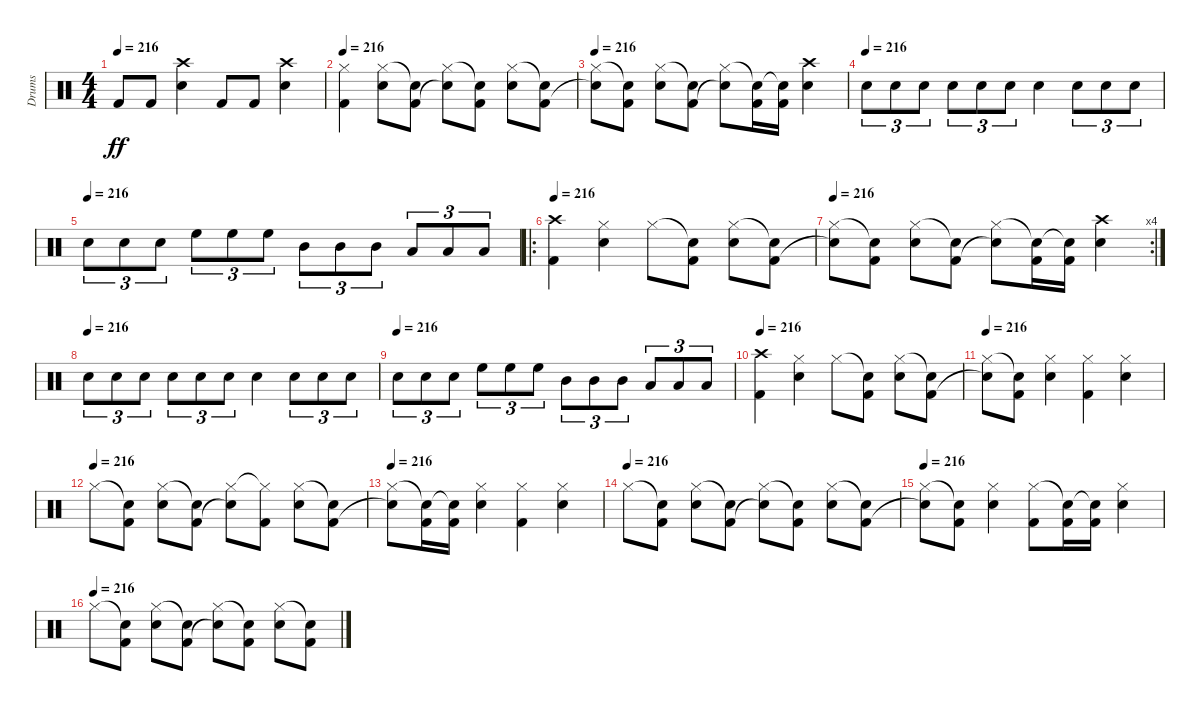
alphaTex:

\track ("Drums" "Drums") {instrument percussion}
\staff {score}
\articulation defaults
\ts (4 4)
\tempo 216
\clef neutral
\ks c "Kick (hit) 2".8{dy ff} "Kick (hit) 2".8
("Crash high (hit)" "Snare (hit) 2").4 "Kick (hit) 2".8 "Kick (hit) 2".8 ("Crash high (hit)" "Snare (hit) 2").4 |
\tempo 216
("Hi-Hat (closed)" "Kick (hit) 2").4 ("Hi-Hat (closed)" "Snare (hit) 2").8 ("Snare (hit)"{t} "Kick (hit) 2").8 ("Hi-Hat (closed)" "Snare (hit)"{t}).8 ("Snare (hit)"{t} "Kick (hit) 2").8 ("Hi-Hat (closed)" "Snare (hit) 2").8 ("Snare (hit)"{t} "Kick (hit) 2").8 |
\tempo 216
("Hi-Hat (closed)" "Snare (hit)"{t}).8 ("Snare (hit)"{t} "Kick (hit) 2").8 ("Hi-Hat (closed)" "Snare (hit) 2").8 ("Snare (hit)"{t} "Kick (hit) 2").8 ("Hi-Hat (closed)" "Snare (hit)"{t}).8 ("Snare (hit)"{t} "Kick (hit) 2").16 ("Snare (hit)"{t} "Kick (hit) 2").16 ("Crash high (hit)" "Snare (hit) 2").4 |
\tempo (216)
"Snare (hit) 2".8{tu (3 2)} "Snare (hit) 2".8{tu (3 2)} "Snare (hit) 2".8{tu (3 2)} "Snare (hit) 2".8{tu (3 2)} "Snare (hit) 2".8{tu (3 2)} "Snare (hit) 2".8{tu (3 2)} "Snare (hit) 2".4 "Snare (hit) 2".8{tu (3 2)} "Snare (hit) 2".8{tu (3 2)} "Snare (hit) 2".8{tu (3 2)} |
\tempo (216)
"Snare (hit) 2".8{tu (3 2)} "Snare (hit) 2".8{tu (3 2)} "Snare (hit) 2".8{tu (3 2)} "High Floor Tom (hit)".8{tu (3 2)} "High Floor Tom (hit)".8{tu (3 2)} "High Floor Tom (hit)".8{tu (3 2)} "Mid Tom (hit)".8{tu (3 2)} "Mid Tom (hit)".8{tu (3 2)} "Mid Tom (hit)".8{tu (3 2)} "Low Tom (hit)".8{tu (3 2)} "Low Tom (hit)".8{tu (3 2)} "Low Tom (hit)".8{tu (3 2)} |
\ro
\tempo 216
("Crash high (hit)" "Kick (hit) 2").4 ("Hi-Hat (closed)" "Snare (hit) 2").4 "Hi-Hat (closed)".8 ("Snare (hit)"{t} "Kick (hit) 2").8 ("Hi-Hat (closed)" "Snare (hit) 2").8 ("Snare (hit)"{t} "Kick (hit) 2").8 |
\rc 4
\tempo 216
("Hi-Hat (closed)" "Snare (hit)"{t}).8 ("Snare (hit)"{t} "Kick (hit) 2").8 ("Hi-Hat (closed)" "Snare (hit) 2").8 ("Snare (hit)"{t} "Kick (hit) 2").8 ("Hi-Hat (closed)" "Snare (hit)"{t}).8 ("Snare (hit)"{t} "Kick (hit) 2").16 ("Snare (hit)"{t} "Kick (hit) 2").16 ("Crash high (hit)" "Snare (hit) 2").4 |
\tempo (216)
"Snare (hit) 2".8{tu (3 2)} "Snare (hit) 2".8{tu (3 2)} "Snare (hit) 2".8{tu (3 2)} "Snare (hit) 2".8{tu (3 2)} "Snare (hit) 2".8{tu (3 2)} "Snare (hit) 2".8{tu (3 2)} "Snare (hit) 2".4 "Snare (hit) 2".8{tu (3 2)} "Snare (hit) 2".8{tu (3 2)} "Snare (hit) 2".8{tu (3 2)} |
\tempo (216)
"Snare (hit) 2".8{tu (3 2)} "Snare (hit) 2".8{tu (3 2)} "Snare (hit) 2".8{tu (3 2)} "High Floor Tom (hit)".8{tu (3 2)} "High Floor Tom (hit)".8{tu (3 2)} "High Floor Tom (hit)".8{tu (3 2)} "Mid Tom (hit)".8{tu (3 2)} "Mid Tom (hit)".8{tu (3 2)} "Mid Tom (hit)".8{tu (3 2)} "Low Tom (hit)".8{tu (3 2)} "Low Tom (hit)".8{tu (3 2)} "Low Tom (hit)".8{tu (3 2)} |
\tempo 216
("Crash high (hit)" "Kick (hit) 2").4 ("Hi-Hat (closed)" "Snare (hit) 2").4 "Hi-Hat (closed)".8 ("Snare (hit)"{t} "Kick (hit) 2").8 ("Hi-Hat (closed)" "Snare (hit) 2").8 ("Snare (hit)"{t} "Kick (hit) 2").8 |
\tempo 216
("Hi-Hat (closed)" "Snare (hit)"{t}).8 ("Snare (hit)"{t} "Kick (hit) 2").8 ("Hi-Hat (closed)" "Snare (hit) 2").4 ("Hi-Hat (closed)" "Kick (hit) 2").4 ("Hi-Hat (closed)" "Snare (hit) 2").4 |
\tempo (216)
"Hi-Hat (closed)".8 ("Snare (hit)"{t} "Kick (hit) 2").8 ("Hi-Hat (closed)" "Snare (hit) 2").8 ("Snare (hit)"{t} "Kick (hit) 2").8 ("Hi-Hat (closed)" "Snare (hit)"{t}).8 ("Hi-Hat (closed)"{t} "Kick (hit) 2").8 ("Hi-Hat (closed)" "Snare (hit) 2").8 ("Snare (hit)"{t} "Kick (hit) 2").8 |
\tempo 216
("Hi-Hat (closed)" "Snare (hit)"{t}).8 ("Snare (hit)"{t} "Kick (hit) 2").16 ("Snare (hit)"{t} "Kick (hit) 2").16 ("Hi-Hat (closed)" "Snare (hit) 2").4 ("Hi-Hat (closed)" "Kick (hit) 2").4 ("Hi-Hat (closed)" "Snare (hit) 2").4 |
\tempo (216)
"Hi-Hat (closed)".8 ("Snare (hit)"{t} "Kick (hit) 2").8 ("Hi-Hat (closed)" "Snare (hit) 2").8 ("Snare (hit)"{t} "Kick (hit) 2").8 ("Hi-Hat (closed)" "Snare (hit)"{t}).8 ("Snare (hit)"{t} "Kick (hit) 2").8 ("Hi-Hat (closed)" "Snare (hit) 2").8 ("Snare (hit)"{t} "Kick (hit) 2").8 |
\tempo 216
("Hi-Hat (closed)" "Snare (hit)"{t}).8 ("Snare (hit)"{t} "Kick (hit) 2").8 ("Hi-Hat (closed)" "Snare (hit) 2").4 ("Hi-Hat (closed)" "Kick (hit) 2").8 ("Snare (hit)"{t} "Kick (hit) 2").16 ("Snare (hit)"{t} "Kick (hit) 2").16 ("Hi-Hat (closed)" "Snare (hit) 2").4 |
\tempo (216)
"Hi-Hat (closed)".8 ("Snare (hit)"{t} "Kick (hit) 2").8 ("Hi-Hat (closed)" "Snare (hit) 2").8 ("Snare (hit)"{t} "Kick (hit) 2").8 ("Hi-Hat (closed)" "Snare (hit)"{t}).8 ("Snare (hit)"{t} "Kick (hit) 2").8 ("Hi-Hat (closed)" "Snare (hit) 2").8 ("Snare (hit)"{t} "Kick (hit) 2").8
